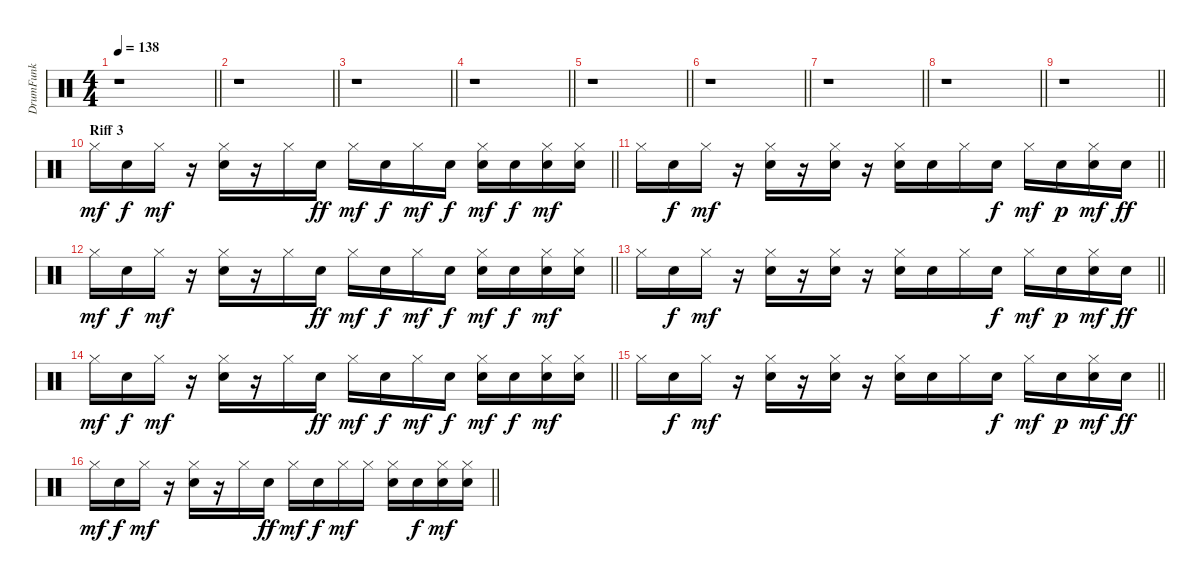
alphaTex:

\track ("DrumFunk" "DrumFunk") {instrument percussion}
\staff {score}
\articulation defaults
\ts (4 4)
\tempo 138
\clef neutral
\barLineRight lightlight
\ks c
r.1{dy mf} |
\barLineRight lightlight
r.1 |
\barLineRight lightlight
r.1 |
\barLineRight lightlight
r.1 |
\barLineRight lightlight
r.1 |
\barLineRight lightlight
r.1 |
\barLineRight lightlight
r.1 |
\barLineRight lightlight
r.1 |
\barLineRight lightlight
r.1 |
\section ("" "Riff 3")
\barLineRight lightlight "Hi-Hat (closed)".16 "Snare (hit) 2".16{dy f} "Hi-Hat (closed)".16{dy mf}
r.16 ("Snare (hit) 2" "Hi-Hat (closed)").16 r.16 "Hi-Hat (closed)".16 "Snare (hit) 2".16{dy ff} "Hi-Hat (closed)".16{dy mf} "Snare (hit) 2".16{dy f} "Hi-Hat (closed)".16{dy mf} "Electric Snare (hit)".16{dy f} ("Snare (hit) 2" "Hi-Hat (closed)").16{dy mf} "Electric Snare (hit)".16{dy f} ("Snare (hit) 2" "Hi-Hat (closed)").16{dy mf} ("Snare (hit) 2" "Hi-Hat (closed)").16 |
\barLineRight lightlight "Hi-Hat (closed)".16 "Snare (hit) 2".16{dy f} "Hi-Hat (closed)".16{dy mf}
r.16 ("Snare (hit) 2" "Hi-Hat (closed)").16 r.16 ("Electric Snare (hit)" "Hi-Hat (closed)").16 r.16 ("Snare (hit) 2" "Hi-Hat (closed)").16 "Snare (hit) 2".16 "Hi-Hat (closed)".16 "Snare (hit) 2".16{dy f} "Hi-Hat (closed)".16{dy mf} "Snare (hit) 2".16{dy p} ("Snare (hit) 2" "Hi-Hat (closed)").16{dy mf} "Snare (hit) 2".16{dy ff} |
\barLineRight lightlight "Hi-Hat (closed)".16{dy mf} "Snare (hit) 2".16{dy f} "Hi-Hat (closed)".16{dy mf}
r.16 ("Snare (hit) 2" "Hi-Hat (closed)").16 r.16 "Hi-Hat (closed)".16 "Snare (hit) 2".16{dy ff} "Hi-Hat (closed)".16{dy mf} "Snare (hit) 2".16{dy f} "Hi-Hat (closed)".16{dy mf} "Electric Snare (hit)".16{dy f} ("Snare (hit) 2" "Hi-Hat (closed)").16{dy mf} "Electric Snare (hit)".16{dy f} ("Snare (hit) 2" "Hi-Hat (closed)").16{dy mf} ("Snare (hit) 2" "Hi-Hat (closed)").16 |
\barLineRight lightlight "Hi-Hat (closed)".16 "Snare (hit) 2".16{dy f} "Hi-Hat (closed)".16{dy mf}
r.16 ("Snare (hit) 2" "Hi-Hat (closed)").16 r.16 ("Electric Snare (hit)" "Hi-Hat (closed)").16 r.16 ("Snare (hit) 2" "Hi-Hat (closed)").16 "Snare (hit) 2".16 "Hi-Hat (closed)".16 "Snare (hit) 2".16{dy f} "Hi-Hat (closed)".16{dy mf} "Snare (hit) 2".16{dy p} ("Snare (hit) 2" "Hi-Hat (closed)").16{dy mf} "Snare (hit) 2".16{dy ff} |
\barLineRight lightlight "Hi-Hat (closed)".16{dy mf} "Snare (hit) 2".16{dy f} "Hi-Hat (closed)".16{dy mf}
r.16 ("Snare (hit) 2" "Hi-Hat (closed)").16 r.16 "Hi-Hat (closed)".16 "Snare (hit) 2".16{dy ff} "Hi-Hat (closed)".16{dy mf} "Snare (hit) 2".16{dy f} "Hi-Hat (closed)".16{dy mf} "Electric Snare (hit)".16{dy f} ("Snare (hit) 2" "Hi-Hat (closed)").16{dy mf} "Electric Snare (hit)".16{dy f} ("Snare (hit) 2" "Hi-Hat (closed)").16{dy mf} ("Snare (hit) 2" "Hi-Hat (closed)").16 |
\barLineRight lightlight "Hi-Hat (closed)".16 "Snare (hit) 2".16{dy f} "Hi-Hat (closed)".16{dy mf}
r.16 ("Snare (hit) 2" "Hi-Hat (closed)").16 r.16 ("Electric Snare (hit)" "Hi-Hat (closed)").16 r.16 ("Snare (hit) 2" "Hi-Hat (closed)").16 "Snare (hit) 2".16 "Hi-Hat (closed)".16 "Snare (hit) 2".16{dy f} "Hi-Hat (closed)".16{dy mf} "Snare (hit) 2".16{dy p} ("Snare (hit) 2" "Hi-Hat (closed)").16{dy mf} "Snare (hit) 2".16{dy ff} |
\barLineRight lightlight "Hi-Hat (closed)".16{dy mf} "Snare (hit) 2".16{dy f} "Hi-Hat (closed)".16{dy mf}
r.16 ("Snare (hit) 2" "Hi-Hat (closed)").16 r.16 "Hi-Hat (closed)".16 "Snare (hit) 2".16{dy ff} "Hi-Hat (closed)".16{dy mf} "Snare (hit) 2".16{dy f} "Hi-Hat (closed)".16{dy mf} "Hi-Hat (closed)".16 ("Snare (hit) 2" "Hi-Hat (closed)").16 "Hand Clap (hit)".16{dy f} ("Snare (hit) 2" "Hi-Hat (closed)").16{dy mf} ("Snare (hit) 2" "Hi-Hat (closed)").16
